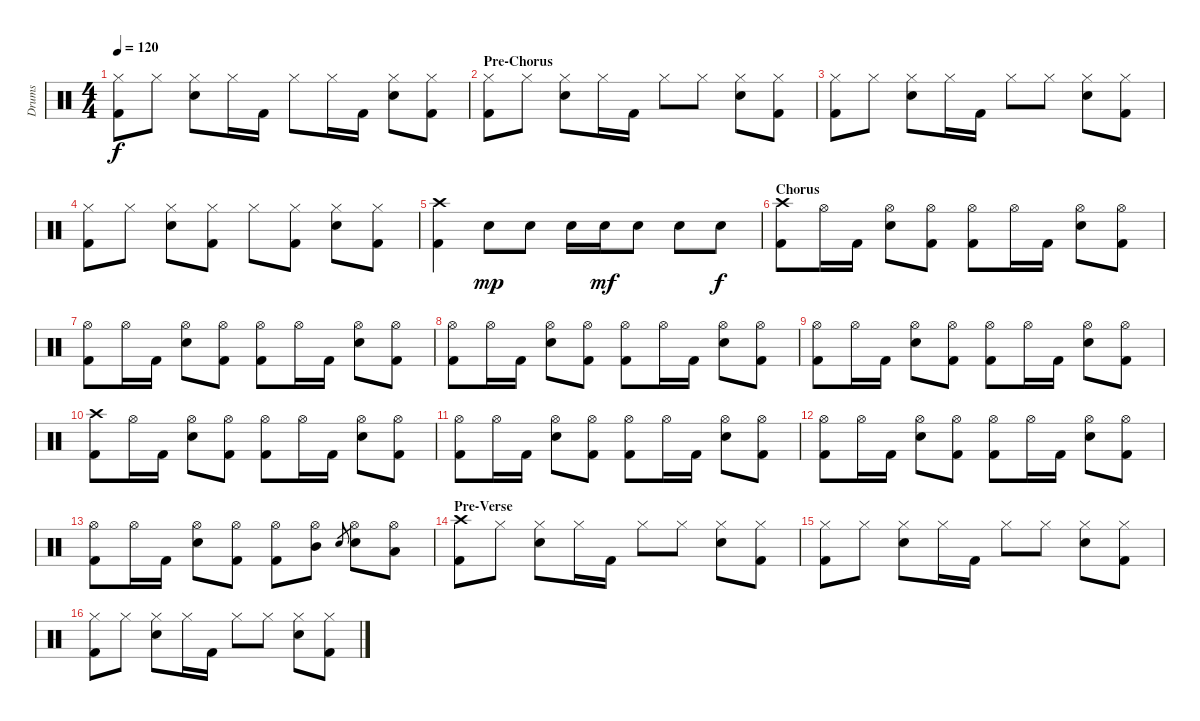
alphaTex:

\track ("Drums" "Drums") {instrument percussion}
\staff {score}
\articulation defaults
\ts (4 4)
\tempo 120
\clef neutral
\ks c
("Hi-Hat (closed)" "Kick (hit) 2").8{dy f} "Hi-Hat (closed)".8 ("Hi-Hat (closed)" "Electric Snare (hit)").8 "Hi-Hat (closed)".16 "Kick (hit) 2".16 "Hi-Hat (closed)".8 "Hi-Hat (closed)".16 "Kick (hit) 2".16 ("Hi-Hat (closed)" "Electric Snare (hit)").8 ("Hi-Hat (closed)" "Kick (hit) 2").8 |
\section ("" "Pre-Chorus")
("Hi-Hat (closed)" "Kick (hit) 2").8 "Hi-Hat (closed)".8 ("Hi-Hat (closed)" "Electric Snare (hit)").8 "Hi-Hat (closed)".16 "Kick (hit) 2".16 "Hi-Hat (closed)".8 "Hi-Hat (closed)".8 ("Hi-Hat (closed)" "Electric Snare (hit)").8 ("Hi-Hat (closed)" "Kick (hit) 2").8 |
("Hi-Hat (closed)" "Kick (hit) 2").8 "Hi-Hat (closed)".8 ("Hi-Hat (closed)" "Electric Snare (hit)").8 "Hi-Hat (closed)".16 "Kick (hit) 2".16 "Hi-Hat (closed)".8 "Hi-Hat (closed)".8 ("Hi-Hat (closed)" "Electric Snare (hit)").8 ("Hi-Hat (closed)" "Kick (hit) 2").8 |
("Hi-Hat (closed)" "Kick (hit) 2").8 "Hi-Hat (closed)".8 ("Hi-Hat (closed)" "Electric Snare (hit)").8 ("Hi-Hat (closed)" "Kick (hit) 2").8 "Hi-Hat (closed)".8 ("Hi-Hat (closed)" "Kick (hit) 2").8 ("Hi-Hat (closed)" "Electric Snare (hit)").8 ("Hi-Hat (closed)" "Kick (hit) 2").8 |
("Crash high (hit)" "Kick (hit) 2").4 "Electric Snare (hit)".8{dy mp} "Electric Snare (hit)".8 "Electric Snare (hit)".16 "Electric Snare (hit)".16{dy mf} "Electric Snare (hit)".8 "Electric Snare (hit)".8 "Electric Snare (hit)".8{dy f} |
\section ("" "Chorus")
("Crash high (hit)" "Kick (hit) 2").8 "Hi-Hat (open)".16 "Kick (hit) 2".16 ("Hi-Hat (open)" "Electric Snare (hit)").8 ("Hi-Hat (open)" "Kick (hit) 2").8 ("Hi-Hat (open)" "Kick (hit) 2").8 "Hi-Hat (open)".16 "Kick (hit) 2".16 ("Hi-Hat (open)" "Electric Snare (hit)").8 ("Hi-Hat (open)" "Kick (hit) 2").8 |
("Hi-Hat (open)" "Kick (hit) 2").8 "Hi-Hat (open)".16 "Kick (hit) 2".16 ("Hi-Hat (open)" "Electric Snare (hit)").8 ("Hi-Hat (open)" "Kick (hit) 2").8 ("Hi-Hat (open)" "Kick (hit) 2").8 "Hi-Hat (open)".16 "Kick (hit) 2".16 ("Hi-Hat (open)" "Electric Snare (hit)").8 ("Hi-Hat (open)" "Kick (hit) 2").8 |
("Hi-Hat (open)" "Kick (hit) 2").8 "Hi-Hat (open)".16 "Kick (hit) 2".16 ("Hi-Hat (open)" "Electric Snare (hit)").8 ("Hi-Hat (open)" "Kick (hit) 2").8 ("Hi-Hat (open)" "Kick (hit) 2").8 "Hi-Hat (open)".16 "Kick (hit) 2".16 ("Hi-Hat (open)" "Electric Snare (hit)").8 ("Hi-Hat (open)" "Kick (hit) 2").8 |
("Hi-Hat (open)" "Kick (hit) 2").8 "Hi-Hat (open)".16 "Kick (hit) 2".16 ("Hi-Hat (open)" "Electric Snare (hit)").8 ("Hi-Hat (open)" "Kick (hit) 2").8 ("Hi-Hat (open)" "Kick (hit) 2").8 "Hi-Hat (open)".16 "Kick (hit) 2".16 ("Hi-Hat (open)" "Electric Snare (hit)").8 ("Hi-Hat (open)" "Kick (hit) 2").8 |
("Crash high (hit)" "Kick (hit) 2").8 "Hi-Hat (open)".16 "Kick (hit) 2".16 ("Hi-Hat (open)" "Electric Snare (hit)").8 ("Hi-Hat (open)" "Kick (hit) 2").8 ("Hi-Hat (open)" "Kick (hit) 2").8 "Hi-Hat (open)".16 "Kick (hit) 2".16 ("Hi-Hat (open)" "Electric Snare (hit)").8 ("Hi-Hat (open)" "Kick (hit) 2").8 |
("Hi-Hat (open)" "Kick (hit) 2").8 "Hi-Hat (open)".16 "Kick (hit) 2".16 ("Hi-Hat (open)" "Electric Snare (hit)").8 ("Hi-Hat (open)" "Kick (hit) 2").8 ("Hi-Hat (open)" "Kick (hit) 2").8 "Hi-Hat (open)".16 "Kick (hit) 2".16 ("Hi-Hat (open)" "Electric Snare (hit)").8 ("Hi-Hat (open)" "Kick (hit) 2").8 |
("Hi-Hat (open)" "Kick (hit) 2").8 "Hi-Hat (open)".16 "Kick (hit) 2".16 ("Hi-Hat (open)" "Electric Snare (hit)").8 ("Hi-Hat (open)" "Kick (hit) 2").8 ("Hi-Hat (open)" "Kick (hit) 2").8 "Hi-Hat (open)".16 "Kick (hit) 2".16 ("Hi-Hat (open)" "Electric Snare (hit)").8 ("Hi-Hat (open)" "Kick (hit) 2").8 |
("Hi-Hat (open)" "Kick (hit) 2").8 "Hi-Hat (open)".16 "Kick (hit) 2".16 ("Hi-Hat (open)" "Electric Snare (hit)").8 ("Hi-Hat (open)" "Kick (hit) 2").8 ("Hi-Hat (open)" "Kick (hit) 2").8 ("Hi-Hat (open)" "Mid Tom (hit)").8 "Electric Snare (hit)".8{gr} ("Hi-Hat (open)" "Electric Snare (hit)").8 ("Hi-Hat (open)" "Low Tom (hit)").8 |
\section ("" "Pre-Verse")
("Crash high (hit)" "Kick (hit) 2").8 "Hi-Hat (closed)".8 ("Hi-Hat (closed)" "Electric Snare (hit)").8 "Hi-Hat (closed)".16 "Kick (hit) 2".16 "Hi-Hat (closed)".8 "Hi-Hat (closed)".8 ("Hi-Hat (closed)" "Electric Snare (hit)").8 ("Hi-Hat (closed)" "Kick (hit) 2").8 |
("Hi-Hat (closed)" "Kick (hit) 2").8 "Hi-Hat (closed)".8 ("Hi-Hat (closed)" "Electric Snare (hit)").8 "Hi-Hat (closed)".16 "Kick (hit) 2".16 "Hi-Hat (closed)".8 "Hi-Hat (closed)".8 ("Hi-Hat (closed)" "Electric Snare (hit)").8 ("Hi-Hat (closed)" "Kick (hit) 2").8 |
("Hi-Hat (closed)" "Kick (hit) 2").8 "Hi-Hat (closed)".8 ("Hi-Hat (closed)" "Electric Snare (hit)").8 "Hi-Hat (closed)".16 "Kick (hit) 2".16 "Hi-Hat (closed)".8 "Hi-Hat (closed)".8 ("Hi-Hat (closed)" "Electric Snare (hit)").8 ("Hi-Hat (closed)" "Kick (hit) 2").8
